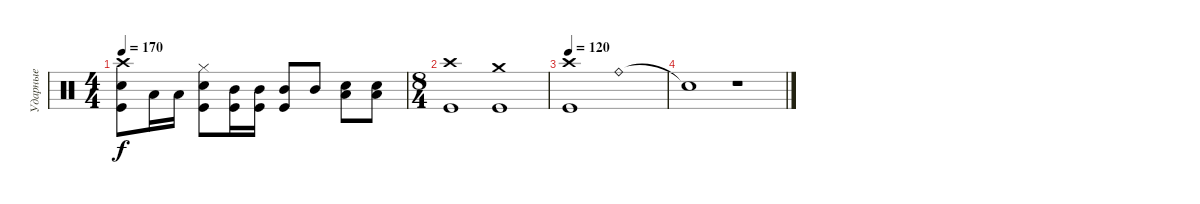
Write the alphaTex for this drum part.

\track ("Ударные" "Ударные") {instrument percussion}
\staff {score}
\articulation defaults
\ts (4 4)
\tempo 170
\clef neutral
\ks c
("Crash high (hit)" "Electric Snare (hit)" "Kick (hit)").8{dy f} "Low Tom (hit)".16 "Low Tom (hit)".16 ("Hi-Hat (closed)" "Electric Snare (hit)" "Kick (hit)").8 ("Mid Tom (hit)" "Kick (hit)").16 ("Mid Tom (hit)" "Kick (hit)").16 ("Mid Tom (hit)" "Kick (hit)").8 "Mid Tom (hit)".8 ("Low Tom (hit)" "Electric Snare (hit)").8 ("Electric Snare (hit)" "Low Tom (hit)").8 |
\ts (8 4)
("Crash high (hit)" "Kick (hit)").1 ("Crash medium (hit)" "Kick (hit)").1 |
\tempo 120
("Crash high (hit)" "Kick (hit)").1 "Ride (bell)".1 |
"Snare (hit)"{t}.1 r.1
